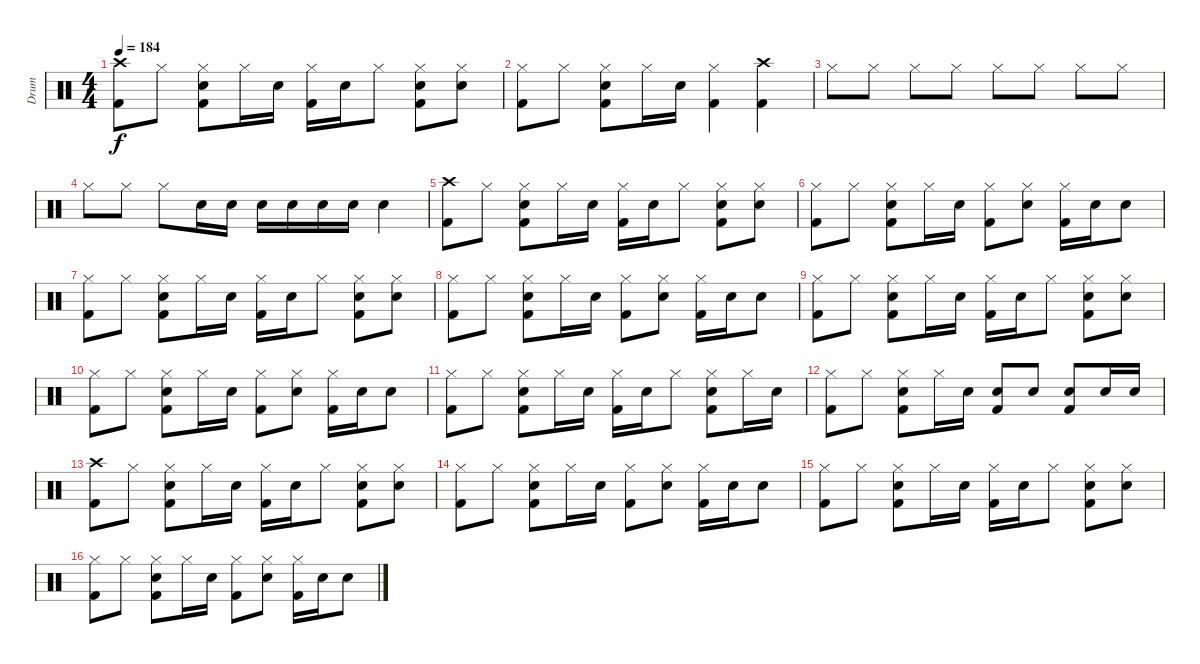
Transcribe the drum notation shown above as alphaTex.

\track ("Drum" "Drum") {instrument percussion}
\staff {score}
\articulation defaults
\ts (4 4)
\tempo 184
\clef neutral
\ks c
("Crash high (hit)" "Kick (hit) 2").8{dy f} "Hi-Hat (closed)".8 ("Hi-Hat (closed)" "Electric Snare (hit)" "Kick (hit) 2").8 "Hi-Hat (closed)".16 "Electric Snare (hit)".16 ("Hi-Hat (closed)" "Kick (hit) 2").16 "Electric Snare (hit)".16 "Hi-Hat (closed)".8 ("Hi-Hat (closed)" "Electric Snare (hit)" "Kick (hit) 2").8 ("Hi-Hat (closed)" "Electric Snare (hit)").8 |
("Hi-Hat (closed)" "Kick (hit) 2").8 "Hi-Hat (closed)".8 ("Hi-Hat (closed)" "Electric Snare (hit)" "Kick (hit) 2").8 "Hi-Hat (closed)".16 "Electric Snare (hit)".16 ("Hi-Hat (closed)" "Kick (hit) 2").4 ("Crash high (hit)" "Kick (hit) 2").4 |
"Hi-Hat (closed)".8 "Hi-Hat (closed)".8 "Hi-Hat (closed)".8 "Hi-Hat (closed)".8 "Hi-Hat (closed)".8 "Hi-Hat (closed)".8 "Hi-Hat (closed)".8 "Hi-Hat (closed)".8 |
"Hi-Hat (closed)".8 "Hi-Hat (closed)".8 "Hi-Hat (closed)".8 "Electric Snare (hit)".16 "Electric Snare (hit)".16 "Electric Snare (hit)".16 "Electric Snare (hit)".16 "Electric Snare (hit)".16 "Electric Snare (hit)".16 "Electric Snare (hit)".4 |
("Crash high (hit)" "Kick (hit) 2").8 "Hi-Hat (closed)".8 ("Hi-Hat (closed)" "Electric Snare (hit)" "Kick (hit) 2").8 "Hi-Hat (closed)".16 "Electric Snare (hit)".16 ("Hi-Hat (closed)" "Kick (hit) 2").16 "Electric Snare (hit)".16 "Hi-Hat (closed)".8 ("Hi-Hat (closed)" "Electric Snare (hit)" "Kick (hit) 2").8 ("Hi-Hat (closed)" "Electric Snare (hit)").8 |
("Hi-Hat (closed)" "Kick (hit) 2").8 "Hi-Hat (closed)".8 ("Hi-Hat (closed)" "Electric Snare (hit)" "Kick (hit) 2").8 "Hi-Hat (closed)".16 "Electric Snare (hit)".16 ("Hi-Hat (closed)" "Kick (hit) 2").8 ("Hi-Hat (closed)" "Electric Snare (hit)").8 ("Hi-Hat (closed)" "Kick (hit) 2").16 "Electric Snare (hit)".16 "Electric Snare (hit)".8 |
("Hi-Hat (closed)" "Kick (hit) 2").8 "Hi-Hat (closed)".8 ("Hi-Hat (closed)" "Electric Snare (hit)" "Kick (hit) 2").8 "Hi-Hat (closed)".16 "Electric Snare (hit)".16 ("Hi-Hat (closed)" "Kick (hit) 2").16 "Electric Snare (hit)".16 "Hi-Hat (closed)".8 ("Hi-Hat (closed)" "Electric Snare (hit)" "Kick (hit) 2").8 ("Hi-Hat (closed)" "Electric Snare (hit)").8 |
("Hi-Hat (closed)" "Kick (hit) 2").8 "Hi-Hat (closed)".8 ("Hi-Hat (closed)" "Electric Snare (hit)" "Kick (hit) 2").8 "Hi-Hat (closed)".16 "Electric Snare (hit)".16 ("Hi-Hat (closed)" "Kick (hit) 2").8 ("Hi-Hat (closed)" "Electric Snare (hit)").8 ("Hi-Hat (closed)" "Kick (hit) 2").16 "Electric Snare (hit)".16 "Electric Snare (hit)".8 |
("Hi-Hat (closed)" "Kick (hit) 2").8 "Hi-Hat (closed)".8 ("Hi-Hat (closed)" "Electric Snare (hit)" "Kick (hit) 2").8 "Hi-Hat (closed)".16 "Electric Snare (hit)".16 ("Hi-Hat (closed)" "Kick (hit) 2").16 "Electric Snare (hit)".16 "Hi-Hat (closed)".8 ("Hi-Hat (closed)" "Electric Snare (hit)" "Kick (hit) 2").8 ("Hi-Hat (closed)" "Electric Snare (hit)").8 |
("Hi-Hat (closed)" "Kick (hit) 2").8 "Hi-Hat (closed)".8 ("Hi-Hat (closed)" "Electric Snare (hit)" "Kick (hit) 2").8 "Hi-Hat (closed)".16 "Electric Snare (hit)".16 ("Hi-Hat (closed)" "Kick (hit) 2").8 ("Hi-Hat (closed)" "Electric Snare (hit)").8 ("Hi-Hat (closed)" "Kick (hit) 2").16 "Electric Snare (hit)".16 "Electric Snare (hit)".8 |
("Hi-Hat (closed)" "Kick (hit) 2").8 "Hi-Hat (closed)".8 ("Hi-Hat (closed)" "Electric Snare (hit)" "Kick (hit) 2").8 "Hi-Hat (closed)".16 "Electric Snare (hit)".16 ("Hi-Hat (closed)" "Kick (hit) 2").16 "Electric Snare (hit)".16 "Hi-Hat (closed)".8 ("Hi-Hat (closed)" "Electric Snare (hit)" "Kick (hit) 2").8 "Hi-Hat (closed)".16 "Electric Snare (hit)".16 |
("Hi-Hat (closed)" "Kick (hit) 2").8 "Hi-Hat (closed)".8 ("Hi-Hat (closed)" "Electric Snare (hit)" "Kick (hit) 2").8 "Hi-Hat (closed)".16 "Electric Snare (hit)".16 ("Electric Snare (hit)" "Kick (hit) 2").8 "Electric Snare (hit)".8 ("Electric Snare (hit)" "Kick (hit) 2").8 "Electric Snare (hit)".16 "Electric Snare (hit)".16 |
("Crash high (hit)" "Kick (hit) 2").8 "Hi-Hat (closed)".8 ("Hi-Hat (closed)" "Electric Snare (hit)" "Kick (hit) 2").8 "Hi-Hat (closed)".16 "Electric Snare (hit)".16 ("Hi-Hat (closed)" "Kick (hit) 2").16 "Electric Snare (hit)".16 "Hi-Hat (closed)".8 ("Hi-Hat (closed)" "Electric Snare (hit)" "Kick (hit) 2").8 ("Hi-Hat (closed)" "Electric Snare (hit)").8 |
("Hi-Hat (closed)" "Kick (hit) 2").8 "Hi-Hat (closed)".8 ("Hi-Hat (closed)" "Electric Snare (hit)" "Kick (hit) 2").8 "Hi-Hat (closed)".16 "Electric Snare (hit)".16 ("Hi-Hat (closed)" "Kick (hit) 2").8 ("Hi-Hat (closed)" "Electric Snare (hit)").8 ("Hi-Hat (closed)" "Kick (hit) 2").16 "Electric Snare (hit)".16 "Electric Snare (hit)".8 |
("Hi-Hat (closed)" "Kick (hit) 2").8 "Hi-Hat (closed)".8 ("Hi-Hat (closed)" "Electric Snare (hit)" "Kick (hit) 2").8 "Hi-Hat (closed)".16 "Electric Snare (hit)".16 ("Hi-Hat (closed)" "Kick (hit) 2").16 "Electric Snare (hit)".16 "Hi-Hat (closed)".8 ("Hi-Hat (closed)" "Electric Snare (hit)" "Kick (hit) 2").8 ("Hi-Hat (closed)" "Electric Snare (hit)").8 |
("Hi-Hat (closed)" "Kick (hit) 2").8 "Hi-Hat (closed)".8 ("Hi-Hat (closed)" "Electric Snare (hit)" "Kick (hit) 2").8 "Hi-Hat (closed)".16 "Electric Snare (hit)".16 ("Hi-Hat (closed)" "Kick (hit) 2").8 ("Hi-Hat (closed)" "Electric Snare (hit)").8 ("Hi-Hat (closed)" "Kick (hit) 2").16 "Electric Snare (hit)".16 "Electric Snare (hit)".8
